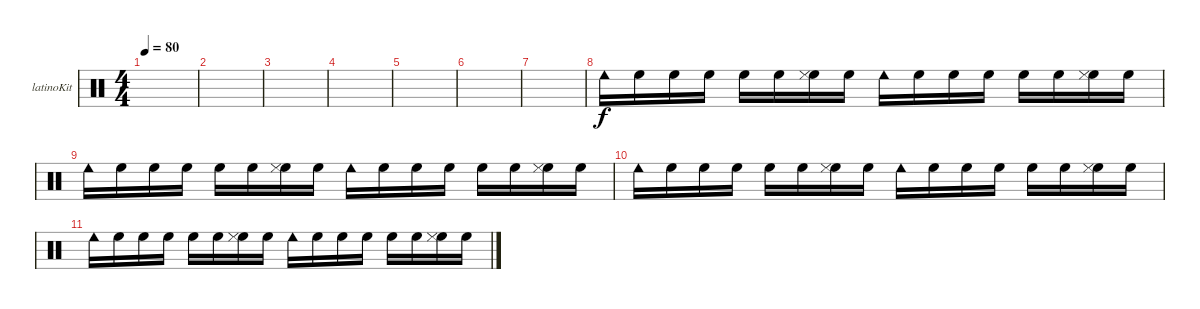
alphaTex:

\defaultSystemsLayout 4
\bracketExtendMode groupsimilarinstruments
\firstSystemTrackNameOrientation horizontal
\otherSystemsTrackNameOrientation horizontal
\track ("Kit-Latino" "latinoKit") {instrument percussion}
\staff {score}
\articulation defaults
\ts (4 4)
\tempo 80
\clef neutral
\scale
0.474178
\ks c
|
\scale
0.262911 |
\scale
0.262911 |
\scale
0.333333 |
\scale
0.333333 |
\scale
0.333333 |
\scale
0.333333 |
\scale
0.333333 "Cowbell low (hit)".16 "High Floor Tom (hit)".16 "High Floor Tom (hit)".16 "High Floor Tom (hit)".16 "High Floor Tom (hit)".16 "High Floor Tom (hit)".16 ("High Floor Tom (hit)" "Cowbell low (tip)").16 "High Floor Tom (hit)".16 "Cowbell low (hit)".16 "High Floor Tom (hit)".16 "High Floor Tom (hit)".16 "High Floor Tom (hit)".16 "High Floor Tom (hit)".16 "High Floor Tom (hit)".16 ("High Floor Tom (hit)" "Cowbell low (tip)").16 "High Floor Tom (hit)".16 |
\scale
0.333333 "Cowbell low (hit)".16 "High Floor Tom (hit)".16 "High Floor Tom (hit)".16 "High Floor Tom (hit)".16 "High Floor Tom (hit)".16 "High Floor Tom (hit)".16 ("High Floor Tom (hit)" "Cowbell low (tip)").16 "High Floor Tom (hit)".16 "Cowbell low (hit)".16 "High Floor Tom (hit)".16 "High Floor Tom (hit)".16 "High Floor Tom (hit)".16 "High Floor Tom (hit)".16 "High Floor Tom (hit)".16 ("High Floor Tom (hit)" "Cowbell low (tip)").16 "High Floor Tom (hit)".16 |
\scale
0.333333 "Cowbell low (hit)".16 "High Floor Tom (hit)".16 "High Floor Tom (hit)".16 "High Floor Tom (hit)".16 "High Floor Tom (hit)".16 "High Floor Tom (hit)".16 ("High Floor Tom (hit)" "Cowbell low (tip)").16 "High Floor Tom (hit)".16 "Cowbell low (hit)".16 "High Floor Tom (hit)".16 "High Floor Tom (hit)".16 "High Floor Tom (hit)".16 "High Floor Tom (hit)".16 "High Floor Tom (hit)".16 ("High Floor Tom (hit)" "Cowbell low (tip)").16 "High Floor Tom (hit)".16 |
\scale
0.333333 "Cowbell low (hit)".16 "High Floor Tom (hit)".16 "High Floor Tom (hit)".16 "High Floor Tom (hit)".16 "High Floor Tom (hit)".16 "High Floor Tom (hit)".16 ("High Floor Tom (hit)" "Cowbell low (tip)").16 "High Floor Tom (hit)".16 "Cowbell low (hit)".16 "High Floor Tom (hit)".16 "High Floor Tom (hit)".16 "High Floor Tom (hit)".16 "High Floor Tom (hit)".16 "High Floor Tom (hit)".16 ("High Floor Tom (hit)" "Cowbell low (tip)").16 "High Floor Tom (hit)".16 |
\scale
0.333333 |
\scale
0.333333 |
\scale
0.333333 |
\scale
0.333333 |
\scale
0.333333
